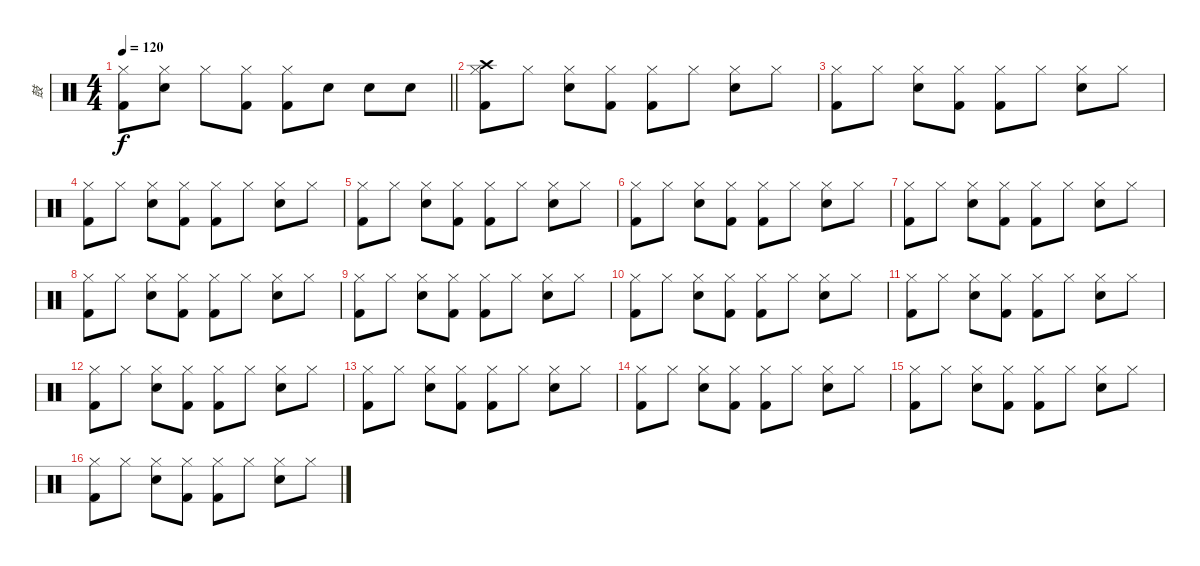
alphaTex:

\track ("鼓" "鼓") {instrument percussion}
\staff {score}
\articulation defaults
\ts (4 4)
\tempo 120
\clef neutral
\barLineRight lightlight
\ks c
("Hi-Hat (closed)" "Kick (hit) 2").8{dy f} ("Hi-Hat (closed)" "Snare (hit) 2").8 "Hi-Hat (closed)".8 ("Hi-Hat (closed)" "Kick (hit) 2").8 ("Hi-Hat (closed)" "Kick (hit) 2").8 "Snare (hit) 2".8 "Snare (hit) 2".8 "Snare (hit) 2".8 |
\section ("" "")
("Hi-Hat (closed)" "Crash high (hit)" "Kick (hit) 2").8 "Hi-Hat (closed)".8 ("Hi-Hat (closed)" "Snare (hit) 2").8 ("Hi-Hat (closed)" "Kick (hit) 2").8 ("Hi-Hat (closed)" "Kick (hit) 2").8 "Hi-Hat (closed)".8 ("Hi-Hat (closed)" "Snare (hit) 2").8 "Hi-Hat (closed)".8 |
("Hi-Hat (closed)" "Kick (hit) 2").8 "Hi-Hat (closed)".8 ("Hi-Hat (closed)" "Snare (hit) 2").8 ("Hi-Hat (closed)" "Kick (hit) 2").8 ("Hi-Hat (closed)" "Kick (hit) 2").8 "Hi-Hat (closed)".8 ("Hi-Hat (closed)" "Snare (hit) 2").8 "Hi-Hat (closed)".8 |
("Hi-Hat (closed)" "Kick (hit) 2").8 "Hi-Hat (closed)".8 ("Hi-Hat (closed)" "Snare (hit) 2").8 ("Hi-Hat (closed)" "Kick (hit) 2").8 ("Hi-Hat (closed)" "Kick (hit) 2").8 "Hi-Hat (closed)".8 ("Hi-Hat (closed)" "Snare (hit) 2").8 "Hi-Hat (closed)".8 |
("Hi-Hat (closed)" "Kick (hit) 2").8 "Hi-Hat (closed)".8 ("Hi-Hat (closed)" "Snare (hit) 2").8 ("Hi-Hat (closed)" "Kick (hit) 2").8 ("Hi-Hat (closed)" "Kick (hit) 2").8 "Hi-Hat (closed)".8 ("Hi-Hat (closed)" "Snare (hit) 2").8 "Hi-Hat (closed)".8 |
("Hi-Hat (closed)" "Kick (hit) 2").8 "Hi-Hat (closed)".8 ("Hi-Hat (closed)" "Snare (hit) 2").8 ("Hi-Hat (closed)" "Kick (hit) 2").8 ("Hi-Hat (closed)" "Kick (hit) 2").8 "Hi-Hat (closed)".8 ("Hi-Hat (closed)" "Snare (hit) 2").8 "Hi-Hat (closed)".8 |
("Hi-Hat (closed)" "Kick (hit) 2").8 "Hi-Hat (closed)".8 ("Hi-Hat (closed)" "Snare (hit) 2").8 ("Hi-Hat (closed)" "Kick (hit) 2").8 ("Hi-Hat (closed)" "Kick (hit) 2").8 "Hi-Hat (closed)".8 ("Hi-Hat (closed)" "Snare (hit) 2").8 "Hi-Hat (closed)".8 |
("Hi-Hat (closed)" "Kick (hit) 2").8 "Hi-Hat (closed)".8 ("Hi-Hat (closed)" "Snare (hit) 2").8 ("Hi-Hat (closed)" "Kick (hit) 2").8 ("Hi-Hat (closed)" "Kick (hit) 2").8 "Hi-Hat (closed)".8 ("Hi-Hat (closed)" "Snare (hit) 2").8 "Hi-Hat (closed)".8 |
("Hi-Hat (closed)" "Kick (hit) 2").8 "Hi-Hat (closed)".8 ("Hi-Hat (closed)" "Snare (hit) 2").8 ("Hi-Hat (closed)" "Kick (hit) 2").8 ("Hi-Hat (closed)" "Kick (hit) 2").8 "Hi-Hat (closed)".8 ("Hi-Hat (closed)" "Snare (hit) 2").8 "Hi-Hat (closed)".8 |
("Hi-Hat (closed)" "Kick (hit) 2").8 "Hi-Hat (closed)".8 ("Hi-Hat (closed)" "Snare (hit) 2").8 ("Hi-Hat (closed)" "Kick (hit) 2").8 ("Hi-Hat (closed)" "Kick (hit) 2").8 "Hi-Hat (closed)".8 ("Hi-Hat (closed)" "Snare (hit) 2").8 "Hi-Hat (closed)".8 |
("Hi-Hat (closed)" "Kick (hit) 2").8 "Hi-Hat (closed)".8 ("Hi-Hat (closed)" "Snare (hit) 2").8 ("Hi-Hat (closed)" "Kick (hit) 2").8 ("Hi-Hat (closed)" "Kick (hit) 2").8 "Hi-Hat (closed)".8 ("Hi-Hat (closed)" "Snare (hit) 2").8 "Hi-Hat (closed)".8 |
("Hi-Hat (closed)" "Kick (hit) 2").8 "Hi-Hat (closed)".8 ("Hi-Hat (closed)" "Snare (hit) 2").8 ("Hi-Hat (closed)" "Kick (hit) 2").8 ("Hi-Hat (closed)" "Kick (hit) 2").8 "Hi-Hat (closed)".8 ("Hi-Hat (closed)" "Snare (hit) 2").8 "Hi-Hat (closed)".8 |
("Hi-Hat (closed)" "Kick (hit) 2").8 "Hi-Hat (closed)".8 ("Hi-Hat (closed)" "Snare (hit) 2").8 ("Hi-Hat (closed)" "Kick (hit) 2").8 ("Hi-Hat (closed)" "Kick (hit) 2").8 "Hi-Hat (closed)".8 ("Hi-Hat (closed)" "Snare (hit) 2").8 "Hi-Hat (closed)".8 |
("Hi-Hat (closed)" "Kick (hit) 2").8 "Hi-Hat (closed)".8 ("Hi-Hat (closed)" "Snare (hit) 2").8 ("Hi-Hat (closed)" "Kick (hit) 2").8 ("Hi-Hat (closed)" "Kick (hit) 2").8 "Hi-Hat (closed)".8 ("Hi-Hat (closed)" "Snare (hit) 2").8 "Hi-Hat (closed)".8 |
("Hi-Hat (closed)" "Kick (hit) 2").8 "Hi-Hat (closed)".8 ("Hi-Hat (closed)" "Snare (hit) 2").8 ("Hi-Hat (closed)" "Kick (hit) 2").8 ("Hi-Hat (closed)" "Kick (hit) 2").8 "Hi-Hat (closed)".8 ("Hi-Hat (closed)" "Snare (hit) 2").8 "Hi-Hat (closed)".8 |
("Hi-Hat (closed)" "Kick (hit) 2").8 "Hi-Hat (closed)".8 ("Hi-Hat (closed)" "Snare (hit) 2").8 ("Hi-Hat (closed)" "Kick (hit) 2").8 ("Hi-Hat (closed)" "Kick (hit) 2").8 "Hi-Hat (closed)".8 ("Hi-Hat (closed)" "Snare (hit) 2").8 "Hi-Hat (closed)".8
